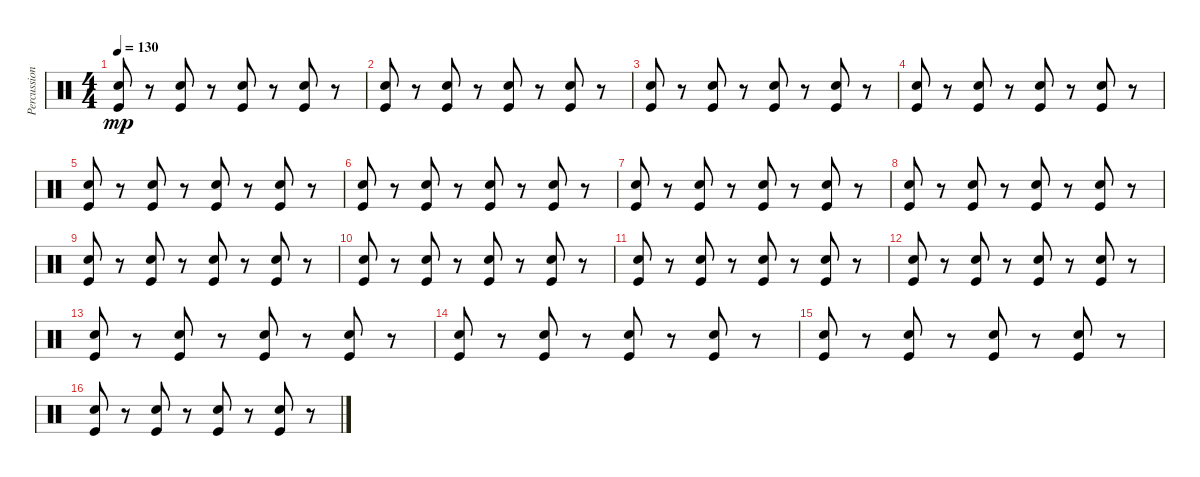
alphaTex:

\track ("Percussions" "Percussion") {instrument percussion}
\staff {score}
\articulation defaults
\ts (4 4)
\tempo 130
\clef neutral
\ks c
("Electric Snare (hit)" "Kick (hit)").8{dy mp} r.8 ("Electric Snare (hit)" "Kick (hit)").8 r.8 ("Electric Snare (hit)" "Kick (hit)").8 r.8 ("Electric Snare (hit)" "Kick (hit)").8 r.8 |
("Electric Snare (hit)" "Kick (hit)").8 r.8 ("Electric Snare (hit)" "Kick (hit)").8 r.8 ("Electric Snare (hit)" "Kick (hit)").8 r.8 ("Electric Snare (hit)" "Kick (hit)").8 r.8 |
("Electric Snare (hit)" "Kick (hit)").8 r.8 ("Electric Snare (hit)" "Kick (hit)").8 r.8 ("Electric Snare (hit)" "Kick (hit)").8 r.8 ("Electric Snare (hit)" "Kick (hit)").8 r.8 |
("Electric Snare (hit)" "Kick (hit)").8 r.8 ("Electric Snare (hit)" "Kick (hit)").8 r.8 ("Electric Snare (hit)" "Kick (hit)").8 r.8 ("Electric Snare (hit)" "Kick (hit)").8 r.8 |
("Electric Snare (hit)" "Kick (hit)").8 r.8 ("Electric Snare (hit)" "Kick (hit)").8 r.8 ("Electric Snare (hit)" "Kick (hit)").8 r.8 ("Electric Snare (hit)" "Kick (hit)").8 r.8 |
("Electric Snare (hit)" "Kick (hit)").8 r.8 ("Electric Snare (hit)" "Kick (hit)").8 r.8 ("Electric Snare (hit)" "Kick (hit)").8 r.8 ("Electric Snare (hit)" "Kick (hit)").8 r.8 |
("Electric Snare (hit)" "Kick (hit)").8 r.8 ("Electric Snare (hit)" "Kick (hit)").8 r.8 ("Electric Snare (hit)" "Kick (hit)").8 r.8 ("Electric Snare (hit)" "Kick (hit)").8 r.8 |
("Electric Snare (hit)" "Kick (hit)").8 r.8 ("Electric Snare (hit)" "Kick (hit)").8 r.8 ("Electric Snare (hit)" "Kick (hit)").8 r.8 ("Electric Snare (hit)" "Kick (hit)").8 r.8 |
("Electric Snare (hit)" "Kick (hit)").8 r.8 ("Electric Snare (hit)" "Kick (hit)").8 r.8 ("Electric Snare (hit)" "Kick (hit)").8 r.8 ("Electric Snare (hit)" "Kick (hit)").8 r.8 |
("Electric Snare (hit)" "Kick (hit)").8 r.8 ("Electric Snare (hit)" "Kick (hit)").8 r.8 ("Electric Snare (hit)" "Kick (hit)").8 r.8 ("Electric Snare (hit)" "Kick (hit)").8 r.8 |
("Electric Snare (hit)" "Kick (hit)").8 r.8 ("Electric Snare (hit)" "Kick (hit)").8 r.8 ("Electric Snare (hit)" "Kick (hit)").8 r.8 ("Electric Snare (hit)" "Kick (hit)").8 r.8 |
("Electric Snare (hit)" "Kick (hit)").8 r.8 ("Electric Snare (hit)" "Kick (hit)").8 r.8 ("Electric Snare (hit)" "Kick (hit)").8 r.8 ("Electric Snare (hit)" "Kick (hit)").8 r.8 |
("Electric Snare (hit)" "Kick (hit)").8 r.8 ("Electric Snare (hit)" "Kick (hit)").8 r.8 ("Electric Snare (hit)" "Kick (hit)").8 r.8 ("Electric Snare (hit)" "Kick (hit)").8 r.8 |
("Electric Snare (hit)" "Kick (hit)").8 r.8 ("Electric Snare (hit)" "Kick (hit)").8 r.8 ("Electric Snare (hit)" "Kick (hit)").8 r.8 ("Electric Snare (hit)" "Kick (hit)").8 r.8 |
("Electric Snare (hit)" "Kick (hit)").8 r.8 ("Electric Snare (hit)" "Kick (hit)").8 r.8 ("Electric Snare (hit)" "Kick (hit)").8 r.8 ("Electric Snare (hit)" "Kick (hit)").8 r.8 |
("Electric Snare (hit)" "Kick (hit)").8 r.8 ("Electric Snare (hit)" "Kick (hit)").8 r.8 ("Electric Snare (hit)" "Kick (hit)").8 r.8 ("Electric Snare (hit)" "Kick (hit)").8 r.8
